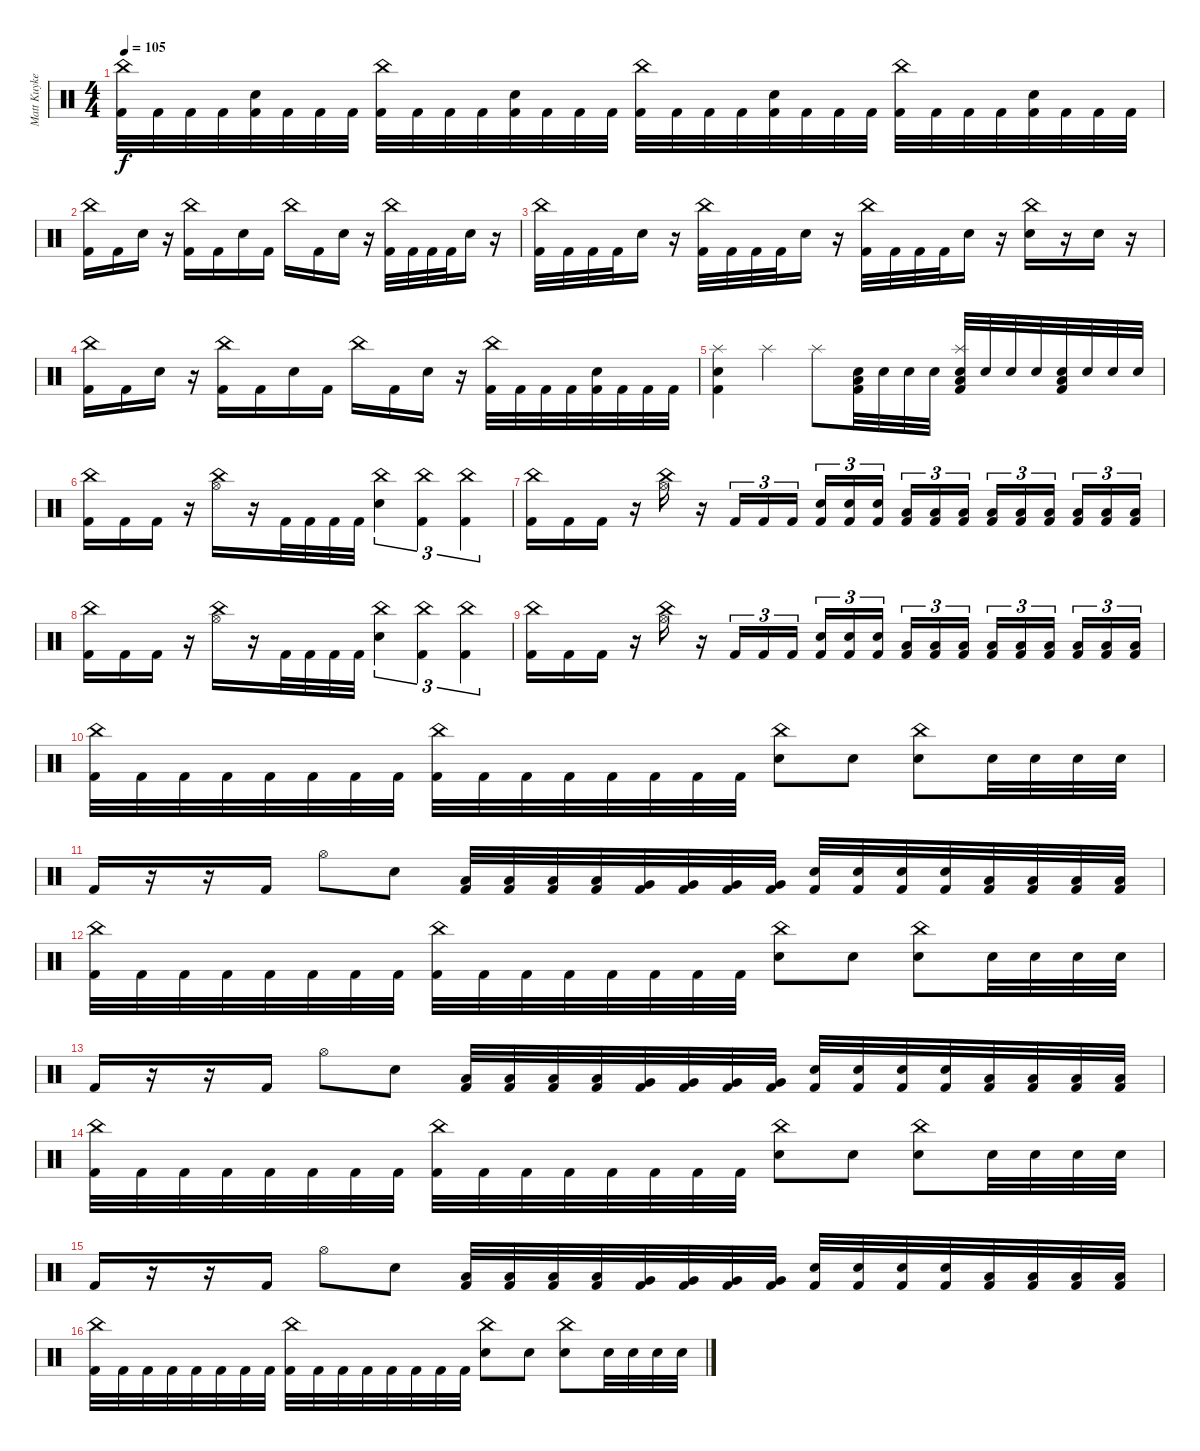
\track ("Matt Kuykendall (Drums)" "Matt Kuyke") {instrument percussion}
\staff {score}
\articulation defaults
\ts (4 4)
\tempo 105
\clef neutral
\ks c
("China (hit)" "Kick (hit) 2").32{dy f} "Kick (hit) 2".32 "Kick (hit) 2".32 "Kick (hit) 2".32 ("Snare (hit) 2" "Kick (hit) 2").32 "Kick (hit) 2".32 "Kick (hit) 2".32 "Kick (hit) 2".32 ("China (hit)" "Kick (hit) 2").32 "Kick (hit) 2".32 "Kick (hit) 2".32 "Kick (hit) 2".32 ("Snare (hit) 2" "Kick (hit) 2").32 "Kick (hit) 2".32 "Kick (hit) 2".32 "Kick (hit) 2".32 ("China (hit)" "Kick (hit) 2").32 "Kick (hit) 2".32 "Kick (hit) 2".32 "Kick (hit) 2".32 ("Snare (hit) 2" "Kick (hit) 2").32 "Kick (hit) 2".32 "Kick (hit) 2".32 "Kick (hit) 2".32 ("China (hit)" "Kick (hit) 2").32 "Kick (hit) 2".32 "Kick (hit) 2".32 "Kick (hit) 2".32 ("Snare (hit) 2" "Kick (hit) 2").32 "Kick (hit) 2".32 "Kick (hit) 2".32 "Kick (hit) 2".32 |
("China (hit)" "Kick (hit) 2").16 "Kick (hit) 2".16 "Snare (hit) 2".16 r.16 ("China (hit)" "Kick (hit) 2").16 "Kick (hit) 2".16 "Snare (hit) 2".16 "Kick (hit) 2".16 "China (hit)".16 "Kick (hit) 2".16 "Snare (hit) 2".16 r.16 ("China (hit)" "Kick (hit) 2").32 "Kick (hit) 2".32 "Kick (hit) 2".32 "Kick (hit) 2".32 "Snare (hit) 2".16 r.16 |
("China (hit)" "Kick (hit) 2").32 "Kick (hit) 2".32 "Kick (hit) 2".32 "Kick (hit) 2".32 "Snare (hit) 2".16 r.16 ("China (hit)" "Kick (hit) 2").32 "Kick (hit) 2".32 "Kick (hit) 2".32 "Kick (hit) 2".32 "Snare (hit) 2".16 r.16 ("China (hit)" "Kick (hit) 2").32 "Kick (hit) 2".32 "Kick (hit) 2".32 "Kick (hit) 2".32 "Snare (hit) 2".16 r.16 ("China (hit)" "Snare (hit) 2").16 r.16 "Snare (hit) 2".16 r.16 |
("China (hit)" "Kick (hit) 2").16 "Kick (hit) 2".16 "Snare (hit) 2".16 r.16 ("China (hit)" "Kick (hit) 2").16 "Kick (hit) 2".16 "Snare (hit) 2".16 "Kick (hit) 2".16 "China (hit)".16 "Kick (hit) 2".16 "Snare (hit) 2".16 r.16 ("China (hit)" "Kick (hit) 2").32 "Kick (hit) 2".32 "Kick (hit) 2".32 "Kick (hit) 2".32 ("Snare (hit) 2" "Kick (hit) 2").32 "Kick (hit) 2".32 "Kick (hit) 2".32 "Kick (hit) 2".32 |
("Splash (hit)" "Snare (hit) 2" "Kick (hit) 2").4 "Splash (hit)".4 "Splash (hit)".8 ("Low Floor Tom (hit)" "Snare (hit) 2" "Kick (hit) 2").32 "Snare (hit) 2".32 "Snare (hit) 2".32 "Snare (hit) 2".32 ("Splash (hit)" "Low Floor Tom (hit)" "Snare (hit) 2" "Kick (hit) 2").32 "Snare (hit) 2".32 "Snare (hit) 2".32 "Snare (hit) 2".32 ("Low Floor Tom (hit)" "Snare (hit) 2" "Kick (hit) 2").32 "Snare (hit) 2".32 "Snare (hit) 2".32 "Snare (hit) 2".32 |
("China (hit)" "Kick (hit) 2").16 "Kick (hit) 2".16 "Kick (hit) 2".16 r.16 ("China (hit)" "Hi-Hat (open)").16 r.16 "Kick (hit) 2".32 "Kick (hit) 2".32 "Kick (hit) 2".32 "Kick (hit) 2".32 ("China (hit)" "Snare (hit) 2").4{tu (3 2)} ("China (hit)" "Kick (hit) 2").4{tu (3 2)} ("China (hit)" "Kick (hit) 2").4{tu (3 2)} |
("China (hit)" "Kick (hit) 2").16 "Kick (hit) 2".16 "Kick (hit) 2".16 r.16 ("China (hit)" "Hi-Hat (open)").16 r.16 "Kick (hit) 2".16{tu (3 2)} "Kick (hit) 2".16{tu (3 2)} "Kick (hit) 2".16{tu (3 2)} ("Snare (hit) 2" "Kick (hit) 2").16{tu (3 2)} ("Snare (hit) 2" "Kick (hit) 2").16{tu (3 2)} ("Snare (hit) 2" "Kick (hit) 2").16{tu (3 2) beam splitsecondary} ("Low Floor Tom (hit)" "Kick (hit) 2").16{tu (3 2)} ("Low Floor Tom (hit)" "Kick (hit) 2").16{tu (3 2)} ("Low Floor Tom (hit)" "Kick (hit) 2").16{tu (3 2)} ("Low Tom (hit)" "Kick (hit) 2").16{tu (3 2)} ("Low Tom (hit)" "Kick (hit) 2").16{tu (3 2)} ("Low Tom (hit)" "Kick (hit) 2").16{tu (3 2) beam splitsecondary} ("Low Floor Tom (hit)" "Kick (hit) 2").16{tu (3 2)} ("Low Floor Tom (hit)" "Kick (hit) 2").16{tu (3 2)} ("Low Floor Tom (hit)" "Kick (hit) 2").16{tu (3 2)} |
("China (hit)" "Kick (hit) 2").16 "Kick (hit) 2".16 "Kick (hit) 2".16 r.16 ("China (hit)" "Hi-Hat (open)").16 r.16 "Kick (hit) 2".32 "Kick (hit) 2".32 "Kick (hit) 2".32 "Kick (hit) 2".32 ("China (hit)" "Snare (hit) 2").4{tu (3 2)} ("China (hit)" "Kick (hit) 2").4{tu (3 2)} ("China (hit)" "Kick (hit) 2").4{tu (3 2)} |
("China (hit)" "Kick (hit) 2").16 "Kick (hit) 2".16 "Kick (hit) 2".16 r.16 ("China (hit)" "Hi-Hat (open)").16 r.16 "Kick (hit) 2".16{tu (3 2)} "Kick (hit) 2".16{tu (3 2)} "Kick (hit) 2".16{tu (3 2)} ("Snare (hit) 2" "Kick (hit) 2").16{tu (3 2)} ("Snare (hit) 2" "Kick (hit) 2").16{tu (3 2)} ("Snare (hit) 2" "Kick (hit) 2").16{tu (3 2) beam splitsecondary} ("Low Floor Tom (hit)" "Kick (hit) 2").16{tu (3 2)} ("Low Floor Tom (hit)" "Kick (hit) 2").16{tu (3 2)} ("Low Floor Tom (hit)" "Kick (hit) 2").16{tu (3 2)} ("Low Tom (hit)" "Kick (hit) 2").16{tu (3 2)} ("Low Tom (hit)" "Kick (hit) 2").16{tu (3 2)} ("Low Tom (hit)" "Kick (hit) 2").16{tu (3 2) beam splitsecondary} ("Low Floor Tom (hit)" "Kick (hit) 2").16{tu (3 2)} ("Low Floor Tom (hit)" "Kick (hit) 2").16{tu (3 2)} ("Low Floor Tom (hit)" "Kick (hit) 2").16{tu (3 2)} |
("China (hit)" "Kick (hit) 2").32 "Kick (hit) 2".32 "Kick (hit) 2".32 "Kick (hit) 2".32 "Kick (hit) 2".32 "Kick (hit) 2".32 "Kick (hit) 2".32 "Kick (hit) 2".32 ("China (hit)" "Kick (hit) 2").32 "Kick (hit) 2".32 "Kick (hit) 2".32 "Kick (hit) 2".32 "Kick (hit) 2".32 "Kick (hit) 2".32 "Kick (hit) 2".32 "Kick (hit) 2".32 ("China (hit)" "Snare (hit) 2").8 "Snare (hit) 2".8 ("China (hit)" "Snare (hit) 2").8 "Snare (hit) 2".32 "Snare (hit) 2".32 "Snare (hit) 2".32 "Snare (hit) 2".32 |
"Kick (hit) 2".16 r.16 r.16 "Kick (hit) 2".16 "Hi-Hat (open)".8 "Snare (hit) 2".8 ("Low Floor Tom (hit)" "Kick (hit) 2").32 ("Low Floor Tom (hit)" "Kick (hit) 2").32 ("Low Floor Tom (hit)" "Kick (hit) 2").32 ("Low Floor Tom (hit)" "Kick (hit) 2").32 ("Very Low Tom (hit)" "Kick (hit) 2").32 ("Very Low Tom (hit)" "Kick (hit) 2").32 ("Very Low Tom (hit)" "Kick (hit) 2").32 ("Very Low Tom (hit)" "Kick (hit) 2").32 ("Snare (hit) 2" "Kick (hit) 2").32 ("Snare (hit) 2" "Kick (hit) 2").32 ("Snare (hit) 2" "Kick (hit) 2").32 ("Snare (hit) 2" "Kick (hit) 2").32 ("Low Floor Tom (hit)" "Kick (hit) 2").32 ("Low Floor Tom (hit)" "Kick (hit) 2").32 ("Low Floor Tom (hit)" "Kick (hit) 2").32 ("Low Floor Tom (hit)" "Kick (hit) 2").32 |
("China (hit)" "Kick (hit) 2").32 "Kick (hit) 2".32 "Kick (hit) 2".32 "Kick (hit) 2".32 "Kick (hit) 2".32 "Kick (hit) 2".32 "Kick (hit) 2".32 "Kick (hit) 2".32 ("China (hit)" "Kick (hit) 2").32 "Kick (hit) 2".32 "Kick (hit) 2".32 "Kick (hit) 2".32 "Kick (hit) 2".32 "Kick (hit) 2".32 "Kick (hit) 2".32 "Kick (hit) 2".32 ("China (hit)" "Snare (hit) 2").8 "Snare (hit) 2".8 ("China (hit)" "Snare (hit) 2").8 "Snare (hit) 2".32 "Snare (hit) 2".32 "Snare (hit) 2".32 "Snare (hit) 2".32 |
"Kick (hit) 2".16 r.16 r.16 "Kick (hit) 2".16 "Hi-Hat (open)".8 "Snare (hit) 2".8 ("Low Floor Tom (hit)" "Kick (hit) 2").32 ("Low Floor Tom (hit)" "Kick (hit) 2").32 ("Low Floor Tom (hit)" "Kick (hit) 2").32 ("Low Floor Tom (hit)" "Kick (hit) 2").32 ("Very Low Tom (hit)" "Kick (hit) 2").32 ("Very Low Tom (hit)" "Kick (hit) 2").32 ("Very Low Tom (hit)" "Kick (hit) 2").32 ("Very Low Tom (hit)" "Kick (hit) 2").32 ("Snare (hit) 2" "Kick (hit) 2").32 ("Snare (hit) 2" "Kick (hit) 2").32 ("Snare (hit) 2" "Kick (hit) 2").32 ("Snare (hit) 2" "Kick (hit) 2").32 ("Low Floor Tom (hit)" "Kick (hit) 2").32 ("Low Floor Tom (hit)" "Kick (hit) 2").32 ("Low Floor Tom (hit)" "Kick (hit) 2").32 ("Low Floor Tom (hit)" "Kick (hit) 2").32 |
("China (hit)" "Kick (hit) 2").32 "Kick (hit) 2".32 "Kick (hit) 2".32 "Kick (hit) 2".32 "Kick (hit) 2".32 "Kick (hit) 2".32 "Kick (hit) 2".32 "Kick (hit) 2".32 ("China (hit)" "Kick (hit) 2").32 "Kick (hit) 2".32 "Kick (hit) 2".32 "Kick (hit) 2".32 "Kick (hit) 2".32 "Kick (hit) 2".32 "Kick (hit) 2".32 "Kick (hit) 2".32 ("China (hit)" "Snare (hit) 2").8 "Snare (hit) 2".8 ("China (hit)" "Snare (hit) 2").8 "Snare (hit) 2".32 "Snare (hit) 2".32 "Snare (hit) 2".32 "Snare (hit) 2".32 |
"Kick (hit) 2".16 r.16 r.16 "Kick (hit) 2".16 "Hi-Hat (open)".8 "Snare (hit) 2".8 ("Low Floor Tom (hit)" "Kick (hit) 2").32 ("Low Floor Tom (hit)" "Kick (hit) 2").32 ("Low Floor Tom (hit)" "Kick (hit) 2").32 ("Low Floor Tom (hit)" "Kick (hit) 2").32 ("Very Low Tom (hit)" "Kick (hit) 2").32 ("Very Low Tom (hit)" "Kick (hit) 2").32 ("Very Low Tom (hit)" "Kick (hit) 2").32 ("Very Low Tom (hit)" "Kick (hit) 2").32 ("Snare (hit) 2" "Kick (hit) 2").32 ("Snare (hit) 2" "Kick (hit) 2").32 ("Snare (hit) 2" "Kick (hit) 2").32 ("Snare (hit) 2" "Kick (hit) 2").32 ("Low Floor Tom (hit)" "Kick (hit) 2").32 ("Low Floor Tom (hit)" "Kick (hit) 2").32 ("Low Floor Tom (hit)" "Kick (hit) 2").32 ("Low Floor Tom (hit)" "Kick (hit) 2").32 |
("China (hit)" "Kick (hit) 2").32 "Kick (hit) 2".32 "Kick (hit) 2".32 "Kick (hit) 2".32 "Kick (hit) 2".32 "Kick (hit) 2".32 "Kick (hit) 2".32 "Kick (hit) 2".32 ("China (hit)" "Kick (hit) 2").32 "Kick (hit) 2".32 "Kick (hit) 2".32 "Kick (hit) 2".32 "Kick (hit) 2".32 "Kick (hit) 2".32 "Kick (hit) 2".32 "Kick (hit) 2".32 ("China (hit)" "Snare (hit) 2").8 "Snare (hit) 2".8 ("China (hit)" "Snare (hit) 2").8 "Snare (hit) 2".32 "Snare (hit) 2".32 "Snare (hit) 2".32 "Snare (hit) 2".32
